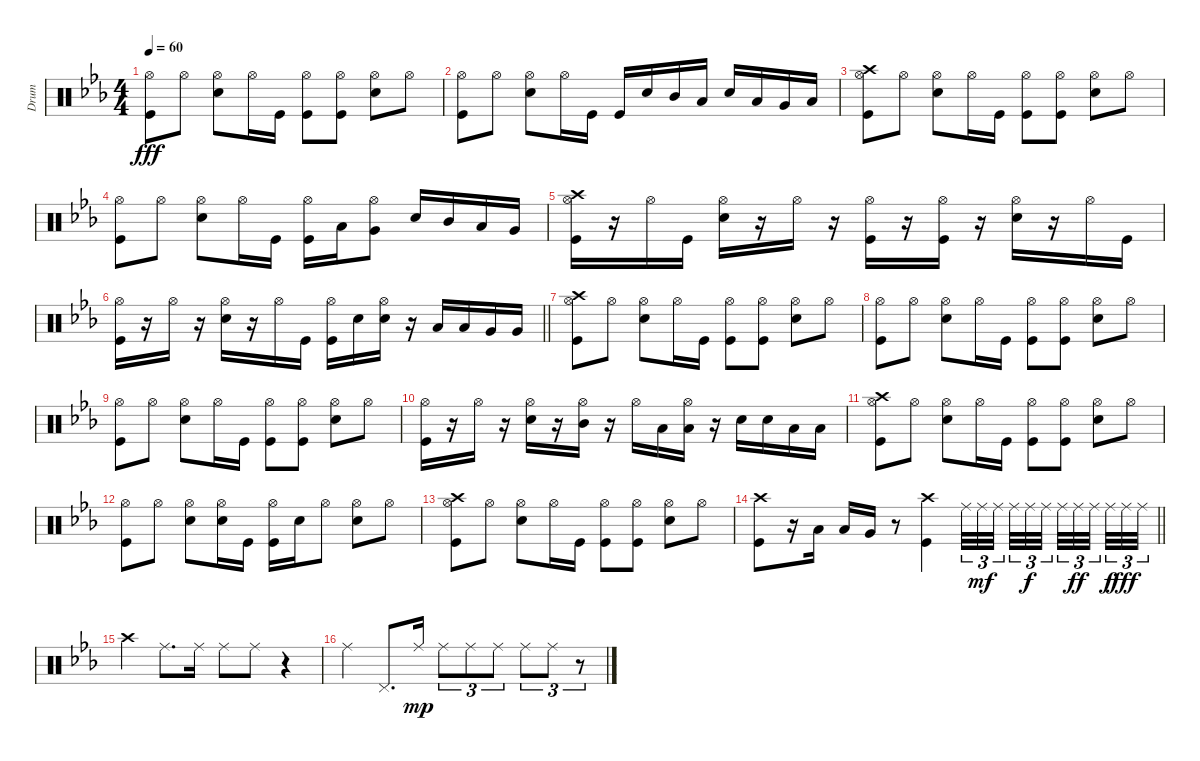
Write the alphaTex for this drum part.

\track ("Drum" "Drum") {instrument percussion}
\staff {score}
\articulation defaults
\ts (4 4)
\tempo 60
\clef neutral
\ks eb
("Hi-Hat (open)" "Kick (hit)").8{dy fff} "Hi-Hat (open)".8 ("Hi-Hat (open)" "Electric Snare (hit)").8 "Hi-Hat (open)".16 "Kick (hit)".16 ("Hi-Hat (open)" "Kick (hit)").8 ("Hi-Hat (open)" "Kick (hit)").8 ("Hi-Hat (open)" "Electric Snare (hit)").8 "Hi-Hat (open)".8 |
("Hi-Hat (open)" "Kick (hit)").8 "Hi-Hat (open)".8 ("Hi-Hat (open)" "Electric Snare (hit)").8 "Hi-Hat (open)".16 "Kick (hit)".16 "Kick (hit)".16 "Electric Snare (hit)".16 "Mid Tom (hit)".16 "Low Tom (hit)".16 "Snare (hit) 2".16 "Low Tom (hit)".16 "Very Low Tom (hit)".16 "Low Floor Tom (hit)".16 |
("Crash high (hit)" "Hi-Hat (open)" "Kick (hit)").8 "Hi-Hat (open)".8 ("Hi-Hat (open)" "Electric Snare (hit)").8 "Hi-Hat (open)".16 "Kick (hit)".16 ("Hi-Hat (open)" "Kick (hit)").8 ("Hi-Hat (open)" "Kick (hit)").8 ("Hi-Hat (open)" "Electric Snare (hit)").8 "Hi-Hat (open)".8 |
("Hi-Hat (open)" "Kick (hit)").8 "Hi-Hat (open)".8 ("Hi-Hat (open)" "Electric Snare (hit)").8 "Hi-Hat (open)".16 "Kick (hit)".16 ("Hi-Hat (open)" "Kick (hit)").16 "Low Tom (hit)".16 ("Hi-Hat (open)" "Very Low Tom (hit)").8 "Electric Snare (hit)".16 "Mid Tom (hit)".16 "Low Tom (hit)".16 "Very Low Tom (hit)".16 |
("Crash high (hit)" "Hi-Hat (open)" "Kick (hit)").16 r.16 "Hi-Hat (open)".16 "Kick (hit)".16 ("Hi-Hat (open)" "Electric Snare (hit)").16 r.16 "Hi-Hat (open)".16 r.16 ("Hi-Hat (open)" "Kick (hit)").16 r.16 ("Hi-Hat (open)" "Kick (hit)").16 r.16 ("Hi-Hat (open)" "Electric Snare (hit)").16 r.16 "Hi-Hat (open)".16 "Kick (hit)".16 |
\barLineRight lightlight
("Hi-Hat (open)" "Kick (hit)").16 r.16 "Hi-Hat (open)".16 r.16 ("Hi-Hat (open)" "Electric Snare (hit)").16 r.16 "Hi-Hat (open)".16 "Kick (hit)".16 ("Hi-Hat (open)" "Kick (hit)").16 "Electric Snare (hit)".16 ("Hi-Hat (open)" "Electric Snare (hit)").16 r.16 "Low Tom (hit)".16 "Low Tom (hit)".16 "Very Low Tom (hit)".16 "Very Low Tom (hit)".16 |
("Crash high (hit)" "Hi-Hat (open)" "Kick (hit)").8 "Hi-Hat (open)".8 ("Hi-Hat (open)" "Electric Snare (hit)").8 "Hi-Hat (open)".16 "Kick (hit)".16 ("Hi-Hat (open)" "Kick (hit)").8 ("Hi-Hat (open)" "Kick (hit)").8 ("Hi-Hat (open)" "Electric Snare (hit)").8 "Hi-Hat (open)".8 |
("Hi-Hat (open)" "Kick (hit)").8 "Hi-Hat (open)".8 ("Hi-Hat (open)" "Electric Snare (hit)").8 "Hi-Hat (open)".16 "Kick (hit)".16 ("Hi-Hat (open)" "Kick (hit)").8 ("Hi-Hat (open)" "Kick (hit)").8 ("Hi-Hat (open)" "Electric Snare (hit)").8 "Hi-Hat (open)".8 |
("Hi-Hat (open)" "Kick (hit)").8 "Hi-Hat (open)".8 ("Hi-Hat (open)" "Electric Snare (hit)").8 "Hi-Hat (open)".16 "Kick (hit)".16 ("Hi-Hat (open)" "Kick (hit)").8 ("Hi-Hat (open)" "Kick (hit)").8 ("Hi-Hat (open)" "Electric Snare (hit)").8 "Hi-Hat (open)".8 |
("Hi-Hat (open)" "Kick (hit)").16 r.16 "Hi-Hat (open)".16 r.16 ("Hi-Hat (open)" "Electric Snare (hit)").16 r.16 ("Hi-Hat (open)" "Mid Tom (hit)").16 r.16 "Hi-Hat (open)".16 "Low Tom (hit)".16 ("Hi-Hat (open)" "Low Tom (hit)").16 r.16 "Electric Snare (hit)".16 "Electric Snare (hit)".16 "Low Tom (hit)".16 "Low Tom (hit)".16 |
("Crash high (hit)" "Hi-Hat (open)" "Kick (hit)").8 "Hi-Hat (open)".8 ("Hi-Hat (open)" "Electric Snare (hit)").8 "Hi-Hat (open)".16 "Kick (hit)".16 ("Hi-Hat (open)" "Kick (hit)").8 ("Hi-Hat (open)" "Kick (hit)").8 ("Hi-Hat (open)" "Electric Snare (hit)").8 "Hi-Hat (open)".8 |
("Hi-Hat (open)" "Kick (hit)").8 "Hi-Hat (open)".8 ("Hi-Hat (open)" "Electric Snare (hit)").8 ("Hi-Hat (open)" "Electric Snare (hit)").16 "Kick (hit)".16 ("Hi-Hat (open)" "Kick (hit)").16 "Electric Snare (hit)".16 "Hi-Hat (open)".8 ("Hi-Hat (open)" "Electric Snare (hit)").8 "Hi-Hat (open)".8 |
("Crash high (hit)" "Hi-Hat (open)" "Kick (hit)").8 "Hi-Hat (open)".8 ("Hi-Hat (open)" "Electric Snare (hit)").8 "Hi-Hat (open)".16 "Kick (hit)".16 ("Hi-Hat (open)" "Kick (hit)").8 ("Hi-Hat (open)" "Kick (hit)").8 ("Hi-Hat (open)" "Electric Snare (hit)").8 "Hi-Hat (open)".8 |
\barLineRight lightlight
("Crash high (hit)" "Kick (hit)").8 r.16 "Low Tom (hit)".16 "Low Tom (hit)".16 "Very Low Tom (hit)".16 r.8 ("Crash high (hit)" "Kick (hit)").4 "Ride (middle)".32{tu (3 2) volume 6} "Ride (middle)".32{tu (3 2) dy mf volume 5} "Ride (middle)".32{tu (3 2) beam splitsecondary} "Ride (middle)".32{tu (3 2)} "Ride (middle)".32{tu (3 2) dy f} "Ride (middle)".32{tu (3 2) beam splitsecondary} "Ride (middle)".32{tu (3 2)} "Ride (middle)".32{tu (3 2) dy ff} "Ride (middle)".32{tu (3 2) beam splitsecondary} "Ride (middle)".32{tu (3 2) dy f} "Ride (middle)".32{tu (3 2) dy fff} "Ride (middle)".32{tu (3 2)} |
"Crash high (hit)".4{volume 16} "Ride (middle)".8{d} "Ride (middle)".16 "Ride (middle)".8 "Ride (middle)".8 r.4 |
"Ride (middle)".4 "Pedal Hi-Hat (hit)".8{d} "Ride (middle)".16{dy mp} "Ride (middle)".8{tu (3 2)} "Ride (middle)".8{tu (3 2)} "Ride (middle)".8{tu (3 2)} "Ride (middle)".8{tu (3 2)} "Ride (middle)".8{tu (3 2)} r.8{tu (3 2)}
